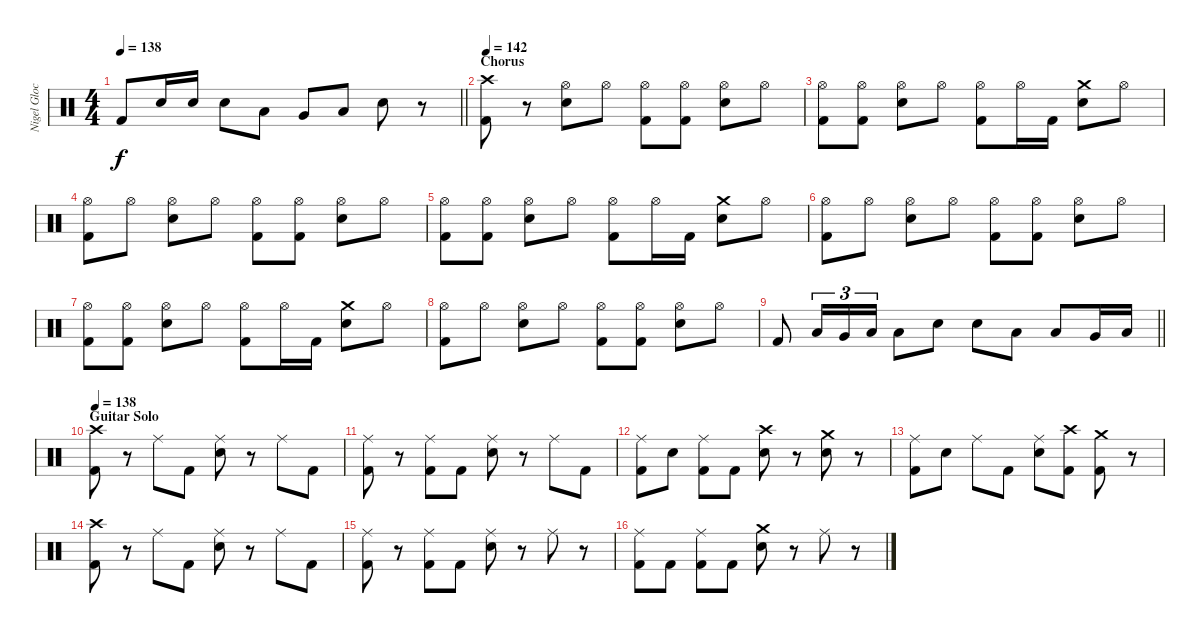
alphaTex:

\track ("Nigel Glockler (Drums)" "Nigel Gloc") {instrument percussion}
\staff {score}
\articulation defaults
\ts (4 4)
\tempo 138
\clef neutral
\barLineRight lightlight
\ks c "Kick (hit) 2".8{dy f} "Snare (hit) 2".16 "Snare (hit) 2".16 "Snare (hit) 2".8 "Low Tom (hit)".8 "Very Low Tom (hit)".8 "Low Floor Tom (hit)".8 "Snare (hit) 2".8
r.8 |
\section ("" "Chorus")
\tempo 142
("Crash high (hit)" "Kick (hit) 2").8 r.8 ("Hi-Hat (open)" "Snare (hit) 2").8 "Hi-Hat (open)".8 ("Hi-Hat (open)" "Kick (hit) 2").8 ("Hi-Hat (open)" "Kick (hit) 2").8 ("Hi-Hat (open)" "Snare (hit) 2").8 "Hi-Hat (open)".8 |
("Hi-Hat (open)" "Kick (hit) 2").8 ("Hi-Hat (open)" "Kick (hit) 2").8 ("Hi-Hat (open)" "Snare (hit) 2").8 "Hi-Hat (open)".8 ("Hi-Hat (open)" "Kick (hit) 2").8 "Hi-Hat (open)".16 "Kick (hit) 2".16 ("Crash medium (hit)" "Snare (hit) 2").8 "Hi-Hat (open)".8 |
("Hi-Hat (open)" "Kick (hit) 2").8 "Hi-Hat (open)".8 ("Hi-Hat (open)" "Snare (hit) 2").8 "Hi-Hat (open)".8 ("Hi-Hat (open)" "Kick (hit) 2").8 ("Hi-Hat (open)" "Kick (hit) 2").8 ("Hi-Hat (open)" "Snare (hit) 2").8 "Hi-Hat (open)".8 |
("Hi-Hat (open)" "Kick (hit) 2").8 ("Hi-Hat (open)" "Kick (hit) 2").8 ("Hi-Hat (open)" "Snare (hit) 2").8 "Hi-Hat (open)".8 ("Hi-Hat (open)" "Kick (hit) 2").8 "Hi-Hat (open)".16 "Kick (hit) 2".16 ("Crash medium (hit)" "Snare (hit) 2").8 "Hi-Hat (open)".8 |
("Hi-Hat (open)" "Kick (hit) 2").8 "Hi-Hat (open)".8 ("Hi-Hat (open)" "Snare (hit) 2").8 "Hi-Hat (open)".8 ("Hi-Hat (open)" "Kick (hit) 2").8 ("Hi-Hat (open)" "Kick (hit) 2").8 ("Hi-Hat (open)" "Snare (hit) 2").8 "Hi-Hat (open)".8 |
("Hi-Hat (open)" "Kick (hit) 2").8 ("Hi-Hat (open)" "Kick (hit) 2").8 ("Hi-Hat (open)" "Snare (hit) 2").8 "Hi-Hat (open)".8 ("Hi-Hat (open)" "Kick (hit) 2").8 "Hi-Hat (open)".16 "Kick (hit) 2".16 ("Crash medium (hit)" "Snare (hit) 2").8 "Hi-Hat (open)".8 |
("Hi-Hat (open)" "Kick (hit) 2").8 "Hi-Hat (open)".8 ("Hi-Hat (open)" "Snare (hit) 2").8 "Hi-Hat (open)".8 ("Hi-Hat (open)" "Kick (hit) 2").8 ("Hi-Hat (open)" "Kick (hit) 2").8 ("Hi-Hat (open)" "Snare (hit) 2").8 "Hi-Hat (open)".8 |
\barLineRight lightlight "Kick (hit) 2".8 "Low Tom (hit)".16{tu (3 2)} "Very Low Tom (hit)".16{tu (3 2)} "Low Floor Tom (hit)".16{tu (3 2)} "Low Floor Tom (hit)".8 "Snare (hit) 2".8 "Snare (hit) 2".8 "Low Tom (hit)".8 "Low Tom (hit)".8 "Very Low Tom (hit)".16 "Low Floor Tom (hit)".16
|
\section ("" "Guitar Solo")
\tempo 138
("Crash high (hit)" "Kick (hit) 2").8 r.8 "Ride (middle)".8 "Kick (hit) 2".8 ("Ride (middle)" "Snare (hit) 2").8 r.8 "Ride (middle)".8 "Kick (hit) 2".8 |
("Ride (middle)" "Kick (hit) 2").8 r.8 ("Ride (middle)" "Kick (hit) 2").8 "Kick (hit) 2".8 ("Ride (middle)" "Snare (hit) 2").8 r.8 "Ride (middle)".8 "Kick (hit) 2".8 |
("Ride (middle)" "Kick (hit) 2").8 "Snare (hit) 2".8 ("Ride (middle)" "Kick (hit) 2").8 "Kick (hit) 2".8 ("Crash high (hit)" "Snare (hit) 2").8 r.8 ("Crash medium (hit)" "Snare (hit) 2").8 r.8 |
("Ride (middle)" "Kick (hit) 2").8 "Snare (hit) 2".8 "Ride (middle)".8 "Kick (hit) 2".8 ("Ride (middle)" "Snare (hit) 2").8 ("Crash high (hit)" "Kick (hit) 2").8 ("Crash medium (hit)" "Kick (hit) 2").8 r.8 |
("Crash high (hit)" "Kick (hit) 2").8 r.8 "Ride (middle)".8 "Kick (hit) 2".8 ("Ride (middle)" "Snare (hit) 2").8 r.8 "Ride (middle)".8 "Kick (hit) 2".8 |
("Ride (middle)" "Kick (hit) 2").8 r.8 ("Ride (middle)" "Kick (hit) 2").8 "Kick (hit) 2".8 ("Ride (middle)" "Snare (hit) 2").8 r.8 "Ride (middle)".8 r.8 |
("Ride (middle)" "Kick (hit) 2").8 "Kick (hit) 2".8 ("Ride (middle)" "Kick (hit) 2").8 "Kick (hit) 2".8 ("Crash medium (hit)" "Snare (hit) 2").8 r.8 "Ride (middle)".8 r.8
